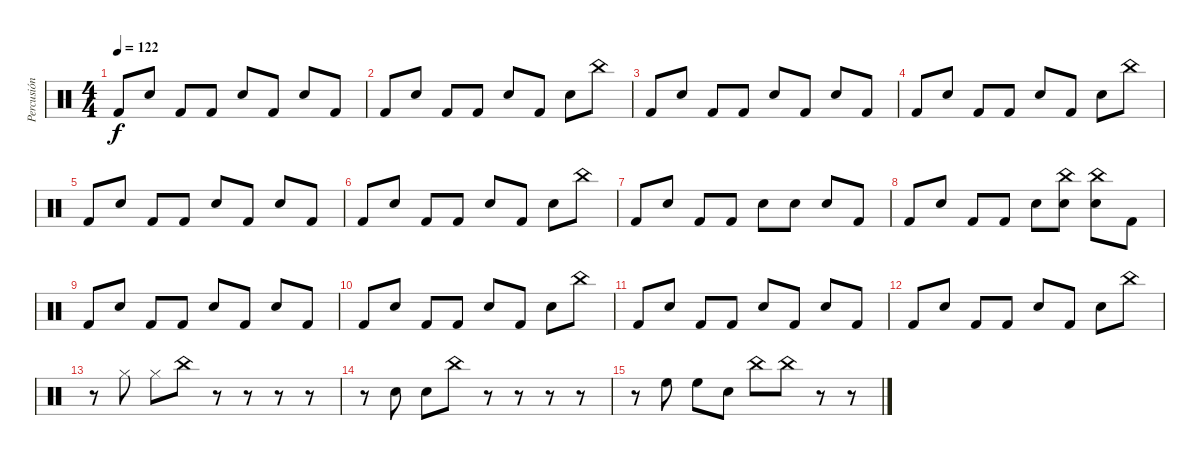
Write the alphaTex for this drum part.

\track ("Percusión" "Percusión") {instrument percussion}
\staff {score}
\articulation defaults
\ts (4 4)
\tempo 122
\clef neutral
\ks c "Kick (hit) 2".8{dy f} "Electric Snare (hit)".8 "Kick (hit) 2".8 "Kick (hit) 2".8 "Electric Snare (hit)".8 "Kick (hit) 2".8 "Electric Snare (hit)".8 "Kick (hit) 2".8
|
"Kick (hit) 2".8 "Electric Snare (hit)".8 "Kick (hit) 2".8 "Kick (hit) 2".8 "Electric Snare (hit)".8 "Kick (hit) 2".8 "Electric Snare (hit)".8 "China (hit)".8 |
"Kick (hit) 2".8 "Electric Snare (hit)".8 "Kick (hit) 2".8 "Kick (hit) 2".8 "Electric Snare (hit)".8 "Kick (hit) 2".8 "Electric Snare (hit)".8 "Kick (hit) 2".8 |
"Kick (hit) 2".8 "Electric Snare (hit)".8 "Kick (hit) 2".8 "Kick (hit) 2".8 "Electric Snare (hit)".8 "Kick (hit) 2".8 "Electric Snare (hit)".8 "China (hit)".8 |
"Kick (hit) 2".8 "Electric Snare (hit)".8 "Kick (hit) 2".8 "Kick (hit) 2".8 "Electric Snare (hit)".8 "Kick (hit) 2".8 "Electric Snare (hit)".8 "Kick (hit) 2".8 |
"Kick (hit) 2".8 "Electric Snare (hit)".8 "Kick (hit) 2".8 "Kick (hit) 2".8 "Electric Snare (hit)".8 "Kick (hit) 2".8 "Electric Snare (hit)".8 "China (hit)".8 |
"Kick (hit) 2".8 "Electric Snare (hit)".8 "Kick (hit) 2".8 "Kick (hit) 2".8 "Electric Snare (hit)".8 "Electric Snare (hit)".8 "Electric Snare (hit)".8 "Kick (hit) 2".8 |
"Kick (hit) 2".8 "Electric Snare (hit)".8 "Kick (hit) 2".8 "Kick (hit) 2".8 "Electric Snare (hit)".8 ("China (hit)" "Electric Snare (hit)").8 ("China (hit)" "Electric Snare (hit)").8 "Kick (hit) 2".8 |
"Kick (hit) 2".8 "Electric Snare (hit)".8 "Kick (hit) 2".8 "Kick (hit) 2".8 "Electric Snare (hit)".8 "Kick (hit) 2".8 "Electric Snare (hit)".8 "Kick (hit) 2".8 |
"Kick (hit) 2".8 "Electric Snare (hit)".8 "Kick (hit) 2".8 "Kick (hit) 2".8 "Electric Snare (hit)".8 "Kick (hit) 2".8 "Electric Snare (hit)".8 "China (hit)".8 |
"Kick (hit) 2".8 "Electric Snare (hit)".8 "Kick (hit) 2".8 "Kick (hit) 2".8 "Electric Snare (hit)".8 "Kick (hit) 2".8 "Electric Snare (hit)".8 "Kick (hit) 2".8 |
"Kick (hit) 2".8 "Electric Snare (hit)".8 "Kick (hit) 2".8 "Kick (hit) 2".8 "Electric Snare (hit)".8 "Kick (hit) 2".8 "Electric Snare (hit)".8 "China (hit)".8 |
r.8 "Hi-Hat (closed)".8 "Hi-Hat (closed)".8 "China (hit)".8 r.8 r.8 r.8 r.8 |
r.8 "Electric Snare (hit)".8 "Electric Snare (hit)".8 "China (hit)".8 r.8 r.8 r.8 r.8 |
r.8 "High Floor Tom (hit)".8 "High Floor Tom (hit)".8 "Electric Snare (hit)".8 "China (hit)".8 "China (hit)".8 r.8 r.8
